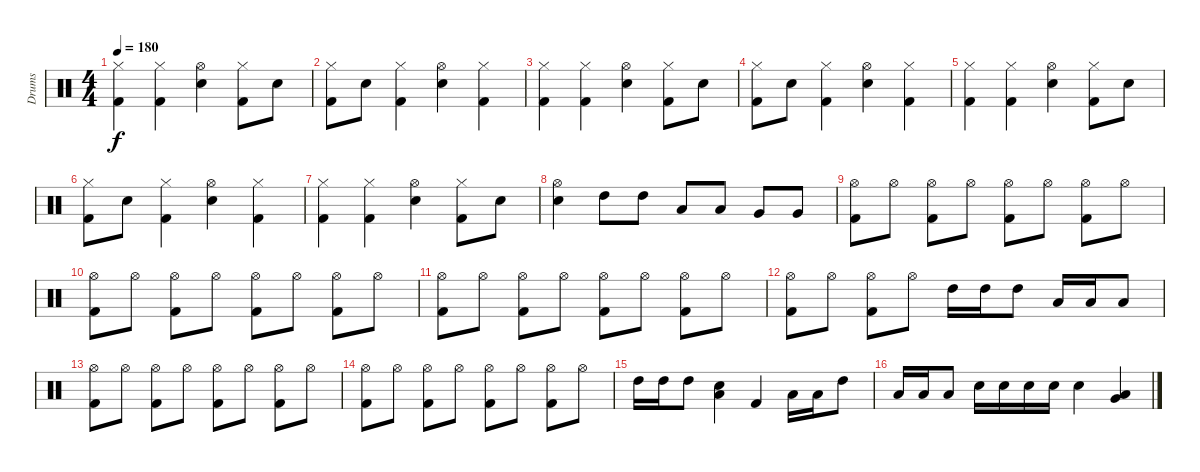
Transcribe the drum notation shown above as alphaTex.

\track ("Drums" "Drums") {instrument percussion}
\staff {score}
\articulation defaults
\ts (4 4)
\tempo 180
\clef neutral
\ks c
("Hi-Hat (closed)" "Kick (hit) 2").4{dy f} ("Hi-Hat (closed)" "Kick (hit) 2").4 ("Hi-Hat (open)" "Electric Snare (hit)").4 ("Hi-Hat (closed)" "Kick (hit) 2").8 "Electric Snare (hit)".8 |
("Hi-Hat (closed)" "Kick (hit) 2").8 "Electric Snare (hit)".8 ("Hi-Hat (closed)" "Kick (hit) 2").4 ("Hi-Hat (open)" "Electric Snare (hit)").4 ("Hi-Hat (closed)" "Kick (hit) 2").4 |
("Hi-Hat (closed)" "Kick (hit) 2").4 ("Hi-Hat (closed)" "Kick (hit) 2").4 ("Hi-Hat (open)" "Electric Snare (hit)").4 ("Hi-Hat (closed)" "Kick (hit) 2").8 "Electric Snare (hit)".8 |
("Hi-Hat (closed)" "Kick (hit) 2").8 "Electric Snare (hit)".8 ("Hi-Hat (closed)" "Kick (hit) 2").4 ("Hi-Hat (open)" "Electric Snare (hit)").4 ("Hi-Hat (closed)" "Kick (hit) 2").4 |
("Hi-Hat (closed)" "Kick (hit) 2").4 ("Hi-Hat (closed)" "Kick (hit) 2").4 ("Hi-Hat (open)" "Electric Snare (hit)").4 ("Hi-Hat (closed)" "Kick (hit) 2").8 "Electric Snare (hit)".8 |
("Hi-Hat (closed)" "Kick (hit) 2").8 "Electric Snare (hit)".8 ("Hi-Hat (closed)" "Kick (hit) 2").4 ("Hi-Hat (open)" "Electric Snare (hit)").4 ("Hi-Hat (closed)" "Kick (hit) 2").4 |
("Hi-Hat (closed)" "Kick (hit) 2").4 ("Hi-Hat (closed)" "Kick (hit) 2").4 ("Hi-Hat (open)" "Electric Snare (hit)").4 ("Hi-Hat (closed)" "Kick (hit) 2").8 "Electric Snare (hit)".8 |
("Hi-Hat (open)" "Electric Snare (hit)").4 "High Tom (hit)".8 "High Tom (hit)".8 "Low Tom (hit)".8 "Low Tom (hit)".8 "Very Low Tom (hit)".8 "Very Low Tom (hit)".8 |
("Hi-Hat (open)" "Kick (hit) 2").8 "Hi-Hat (open)".8 ("Hi-Hat (open)" "Kick (hit) 2").8 "Hi-Hat (open)".8 ("Hi-Hat (open)" "Kick (hit) 2").8 "Hi-Hat (open)".8 ("Hi-Hat (open)" "Kick (hit) 2").8 "Hi-Hat (open)".8 |
("Hi-Hat (open)" "Kick (hit) 2").8 "Hi-Hat (open)".8 ("Hi-Hat (open)" "Kick (hit) 2").8 "Hi-Hat (open)".8 ("Hi-Hat (open)" "Kick (hit) 2").8 "Hi-Hat (open)".8 ("Hi-Hat (open)" "Kick (hit) 2").8 "Hi-Hat (open)".8 |
("Hi-Hat (open)" "Kick (hit) 2").8 "Hi-Hat (open)".8 ("Hi-Hat (open)" "Kick (hit) 2").8 "Hi-Hat (open)".8 ("Hi-Hat (open)" "Kick (hit) 2").8 "Hi-Hat (open)".8 ("Hi-Hat (open)" "Kick (hit) 2").8 "Hi-Hat (open)".8 |
("Hi-Hat (open)" "Kick (hit) 2").8 "Hi-Hat (open)".8 ("Hi-Hat (open)" "Kick (hit) 2").8 "Hi-Hat (open)".8 "High Tom (hit)".16 "High Tom (hit)".16 "High Tom (hit)".8 "Low Tom (hit)".16 "Low Tom (hit)".16 "Low Tom (hit)".8 |
("Hi-Hat (open)" "Kick (hit) 2").8 "Hi-Hat (open)".8 ("Hi-Hat (open)" "Kick (hit) 2").8 "Hi-Hat (open)".8 ("Hi-Hat (open)" "Kick (hit) 2").8 "Hi-Hat (open)".8 ("Hi-Hat (open)" "Kick (hit) 2").8 "Hi-Hat (open)".8 |
("Hi-Hat (open)" "Kick (hit) 2").8 "Hi-Hat (open)".8 ("Hi-Hat (open)" "Kick (hit) 2").8 "Hi-Hat (open)".8 ("Hi-Hat (open)" "Kick (hit) 2").8 "Hi-Hat (open)".8 ("Hi-Hat (open)" "Kick (hit) 2").8 "Hi-Hat (open)".8 |
"High Tom (hit)".16 "High Tom (hit)".16 "High Tom (hit)".8 ("Low Tom (hit)" "Electric Snare (hit)").4 "Kick (hit) 2".4 "Low Tom (hit)".16 "Low Tom (hit)".16 "High Tom (hit)".8 |
"Low Tom (hit)".16 "Low Tom (hit)".16 "Low Tom (hit)".8 "Electric Snare (hit)".16 "Electric Snare (hit)".16 "Electric Snare (hit)".16 "Electric Snare (hit)".16 "Electric Snare (hit)".4 ("Very Low Tom (hit)" "Low Tom (hit)").4
